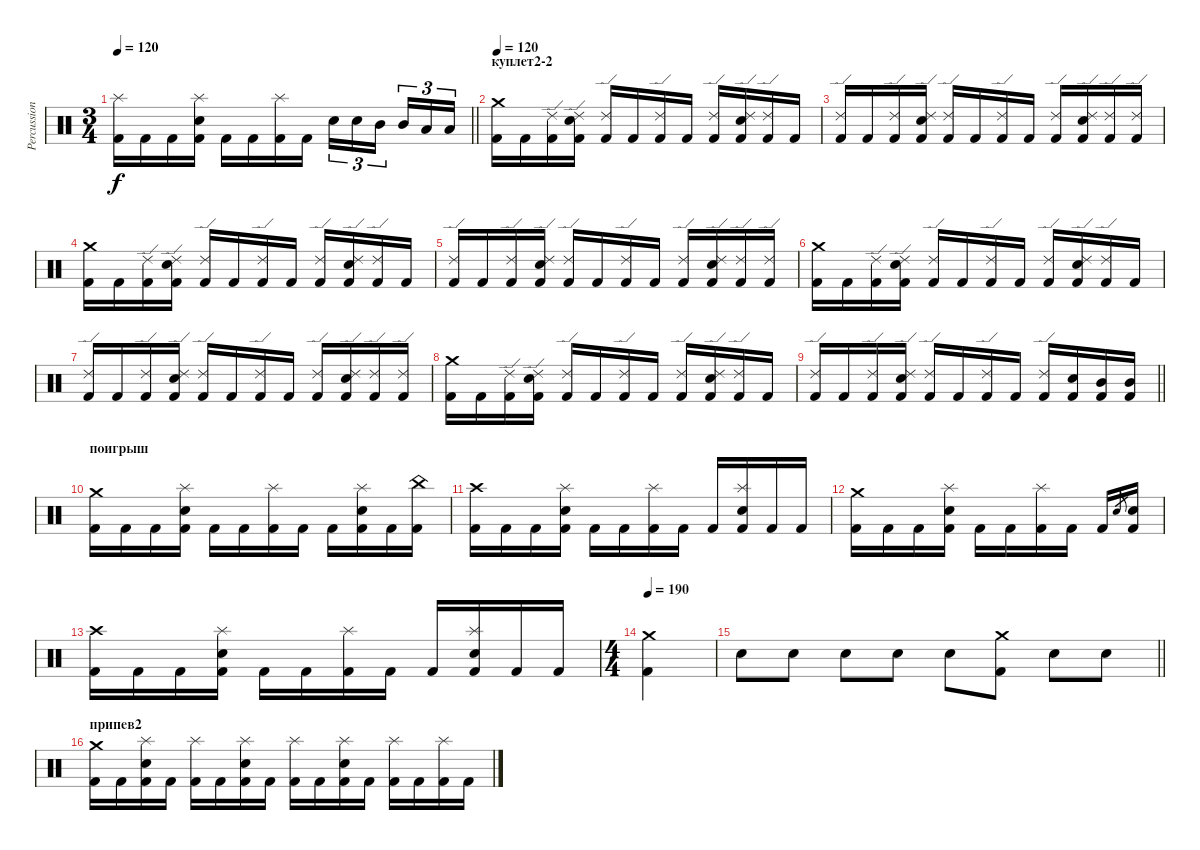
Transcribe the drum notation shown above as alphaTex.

\track ("Percussion" "Percussion") {instrument percussion}
\staff {score}
\articulation defaults
\ts (3 4)
\tempo 120
\clef neutral
\barLineRight lightlight
\ks c
("Kick (hit) 2" "Splash (hit)").16{dy f} "Kick (hit) 2".16 "Kick (hit) 2".16 ("Kick (hit) 2" "Electric Snare (hit)" "Splash (hit)").16 "Kick (hit) 2".16 "Kick (hit) 2".16 ("Kick (hit) 2" "Splash (hit)").16 "Kick (hit) 2".16 "Electric Snare (hit)".16{tu (3 2)} "Electric Snare (hit)".16{tu (3 2)} "Mid Tom (hit)".16{tu (3 2) beam splitsecondary} "Mid Tom (hit)".16{tu (3 2)} "Low Tom (hit)".16{tu (3 2)} "Low Tom (hit)".16{tu (3 2)} |
\section ("" "куплет2-2")
\tempo 120
("Kick (hit) 2" "Crash medium (hit)").16 "Kick (hit) 2".16 ("Kick (hit) 2" "Ride (edge) 2").16 ("Kick (hit) 2" "Electric Snare (hit)" "Ride (edge) 2").16 ("Kick (hit) 2" "Ride (edge) 2").16 "Kick (hit) 2".16 ("Kick (hit) 2" "Ride (edge) 2").16 "Kick (hit) 2".16 ("Kick (hit) 2" "Ride (edge) 2").16 ("Kick (hit) 2" "Electric Snare (hit)" "Ride (edge) 2").16 ("Kick (hit) 2" "Ride (edge) 2").16 "Kick (hit) 2".16 |
("Kick (hit) 2" "Ride (edge) 2").16 "Kick (hit) 2".16 ("Kick (hit) 2" "Ride (edge) 2").16 ("Kick (hit) 2" "Electric Snare (hit)" "Ride (edge) 2").16 ("Kick (hit) 2" "Ride (edge) 2").16 "Kick (hit) 2".16 ("Kick (hit) 2" "Ride (edge) 2").16 "Kick (hit) 2".16 ("Kick (hit) 2" "Ride (edge) 2").16 ("Kick (hit) 2" "Electric Snare (hit)" "Ride (edge) 2").16 ("Kick (hit) 2" "Ride (edge) 2").16 ("Kick (hit) 2" "Ride (edge) 2").16 |
("Kick (hit) 2" "Crash medium (hit)").16 "Kick (hit) 2".16 ("Kick (hit) 2" "Ride (edge) 2").16 ("Kick (hit) 2" "Electric Snare (hit)" "Ride (edge) 2").16 ("Kick (hit) 2" "Ride (edge) 2").16 "Kick (hit) 2".16 ("Kick (hit) 2" "Ride (edge) 2").16 "Kick (hit) 2".16 ("Kick (hit) 2" "Ride (edge) 2").16 ("Kick (hit) 2" "Electric Snare (hit)" "Ride (edge) 2").16 ("Kick (hit) 2" "Ride (edge) 2").16 "Kick (hit) 2".16 |
("Kick (hit) 2" "Ride (edge) 2").16 "Kick (hit) 2".16 ("Kick (hit) 2" "Ride (edge) 2").16 ("Kick (hit) 2" "Electric Snare (hit)" "Ride (edge) 2").16 ("Kick (hit) 2" "Ride (edge) 2").16 "Kick (hit) 2".16 ("Kick (hit) 2" "Ride (edge) 2").16 "Kick (hit) 2".16 ("Kick (hit) 2" "Ride (edge) 2").16 ("Kick (hit) 2" "Electric Snare (hit)" "Ride (edge) 2").16 ("Kick (hit) 2" "Ride (edge) 2").16 ("Kick (hit) 2" "Ride (edge) 2").16 |
("Kick (hit) 2" "Crash medium (hit)").16 "Kick (hit) 2".16 ("Kick (hit) 2" "Ride (edge) 2").16 ("Kick (hit) 2" "Electric Snare (hit)" "Ride (edge) 2").16 ("Kick (hit) 2" "Ride (edge) 2").16 "Kick (hit) 2".16 ("Kick (hit) 2" "Ride (edge) 2").16 "Kick (hit) 2".16 ("Kick (hit) 2" "Ride (edge) 2").16 ("Kick (hit) 2" "Electric Snare (hit)" "Ride (edge) 2").16 ("Kick (hit) 2" "Ride (edge) 2").16 "Kick (hit) 2".16 |
("Kick (hit) 2" "Ride (edge) 2").16 "Kick (hit) 2".16 ("Kick (hit) 2" "Ride (edge) 2").16 ("Kick (hit) 2" "Electric Snare (hit)" "Ride (edge) 2").16 ("Kick (hit) 2" "Ride (edge) 2").16 "Kick (hit) 2".16 ("Kick (hit) 2" "Ride (edge) 2").16 "Kick (hit) 2".16 ("Kick (hit) 2" "Ride (edge) 2").16 ("Kick (hit) 2" "Electric Snare (hit)" "Ride (edge) 2").16 ("Kick (hit) 2" "Ride (edge) 2").16 ("Kick (hit) 2" "Ride (edge) 2").16 |
("Kick (hit) 2" "Crash medium (hit)").16 "Kick (hit) 2".16 ("Kick (hit) 2" "Ride (edge) 2").16 ("Kick (hit) 2" "Electric Snare (hit)" "Ride (edge) 2").16 ("Kick (hit) 2" "Ride (edge) 2").16 "Kick (hit) 2".16 ("Kick (hit) 2" "Ride (edge) 2").16 "Kick (hit) 2".16 ("Kick (hit) 2" "Ride (edge) 2").16 ("Kick (hit) 2" "Electric Snare (hit)" "Ride (edge) 2").16 ("Kick (hit) 2" "Ride (edge) 2").16 "Kick (hit) 2".16 |
\barLineRight lightlight
("Kick (hit) 2" "Ride (edge) 2").16 "Kick (hit) 2".16 ("Kick (hit) 2" "Ride (edge) 2").16 ("Kick (hit) 2" "Electric Snare (hit)" "Ride (edge) 2").16 ("Kick (hit) 2" "Ride (edge) 2").16 "Kick (hit) 2".16 ("Kick (hit) 2" "Ride (edge) 2").16 "Kick (hit) 2".16 ("Kick (hit) 2" "Ride (edge) 2").16 ("Kick (hit) 2" "Electric Snare (hit)").16 ("Kick (hit) 2" "Mid Tom (hit)").16 ("Kick (hit) 2" "Mid Tom (hit)").16 |
\section ("" "поигрыш")
("Kick (hit) 2" "Crash medium (hit)").16 "Kick (hit) 2".16 "Kick (hit) 2".16 ("Kick (hit) 2" "Electric Snare (hit)" "Splash (hit)").16 "Kick (hit) 2".16 "Kick (hit) 2".16 ("Kick (hit) 2" "Splash (hit)").16 "Kick (hit) 2".16 "Kick (hit) 2".16 ("Kick (hit) 2" "Electric Snare (hit)" "Splash (hit)").16 "Kick (hit) 2".16 ("Kick (hit) 2" "China (hit)").16 |
("Kick (hit) 2" "Crash high (hit)").16 "Kick (hit) 2".16 "Kick (hit) 2".16 ("Kick (hit) 2" "Electric Snare (hit)" "Splash (hit)").16 "Kick (hit) 2".16 "Kick (hit) 2".16 ("Kick (hit) 2" "Splash (hit)").16 "Kick (hit) 2".16 "Kick (hit) 2".16 ("Kick (hit) 2" "Electric Snare (hit)" "Splash (hit)").16 "Kick (hit) 2".16 "Kick (hit) 2".16 |
("Kick (hit) 2" "Crash medium (hit)").16 "Kick (hit) 2".16 "Kick (hit) 2".16 ("Kick (hit) 2" "Electric Snare (hit)" "Splash (hit)").16 "Kick (hit) 2".16 "Kick (hit) 2".16 ("Kick (hit) 2" "Splash (hit)").16 "Kick (hit) 2".16 "Kick (hit) 2".16 "Electric Snare (hit)".8{gr} ("Kick (hit) 2" "Electric Snare (hit)").16 |
("Kick (hit) 2" "Crash high (hit)").16 "Kick (hit) 2".16 "Kick (hit) 2".16 ("Kick (hit) 2" "Electric Snare (hit)" "Splash (hit)").16 "Kick (hit) 2".16 "Kick (hit) 2".16 ("Kick (hit) 2" "Splash (hit)").16 "Kick (hit) 2".16 "Kick (hit) 2".16 ("Kick (hit) 2" "Electric Snare (hit)" "Splash (hit)").16 "Kick (hit) 2".16 "Kick (hit) 2".16 |
\ts (4 4)
\tempo 190
("Kick (hit) 2" "Crash medium (hit)").4 |
\barLineRight lightlight "Snare (hit)".8 "Snare (hit)".8 "Snare (hit)".8 "Snare (hit)".8 "Snare (hit)".8
("Crash medium (hit)" "Kick (hit) 2").8 "Snare (hit)".8 "Snare (hit)".8 |
\section ("" "припев2")
("Crash medium (hit)" "Kick (hit) 2").16 "Kick (hit) 2".16 ("Splash (hit)" "Kick (hit) 2" "Electric Snare (hit)").16 "Kick (hit) 2".16 ("Splash (hit)" "Kick (hit) 2").16 "Kick (hit) 2".16 ("Splash (hit)" "Kick (hit) 2" "Electric Snare (hit)").16 "Kick (hit) 2".16 ("Splash (hit)" "Kick (hit) 2").16 "Kick (hit) 2".16 ("Splash (hit)" "Kick (hit) 2" "Electric Snare (hit)").16 "Kick (hit) 2".16 ("Splash (hit)" "Kick (hit) 2").16 "Kick (hit) 2".16 ("Splash (hit)" "Kick (hit) 2").16 "Kick (hit) 2".16
